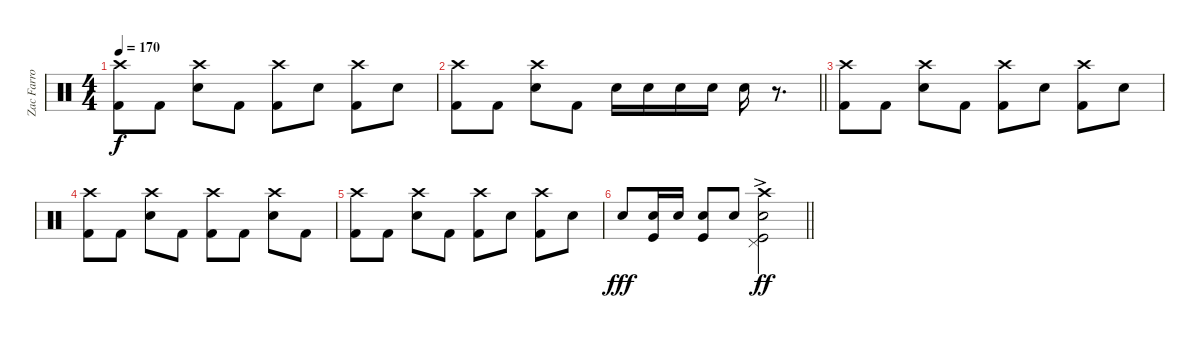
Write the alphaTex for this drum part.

\track ("Zac Farro (Percussion)" "Zac Farro ") {instrument percussion}
\staff {score}
\articulation defaults
\ts (4 4)
\tempo 170
\clef neutral
\ks c
("Crash high (hit)" "Kick (hit) 2").8{dy f} "Kick (hit) 2".8 ("Crash high (hit)" "Electric Snare (hit)").8 "Kick (hit) 2".8 ("Crash high (hit)" "Kick (hit) 2").8 "Electric Snare (hit)".8 ("Crash high (hit)" "Kick (hit) 2").8 "Electric Snare (hit)".8 |
\barLineRight lightlight
("Crash high (hit)" "Kick (hit) 2").8 "Kick (hit) 2".8 ("Crash high (hit)" "Electric Snare (hit)").8 "Kick (hit) 2".8 "Electric Snare (hit)".16 "Electric Snare (hit)".16 "Electric Snare (hit)".16 "Electric Snare (hit)".16 "Electric Snare (hit)".16 r.8{d} |
\section ("" "")
("Crash high (hit)" "Kick (hit) 2").8 "Kick (hit) 2".8 ("Crash high (hit)" "Electric Snare (hit)").8 "Kick (hit) 2".8 ("Crash high (hit)" "Kick (hit) 2").8 "Electric Snare (hit)".8 ("Crash high (hit)" "Kick (hit) 2").8 "Electric Snare (hit)".8 |
("Crash high (hit)" "Kick (hit) 2").8 "Kick (hit) 2".8 ("Crash high (hit)" "Electric Snare (hit)").8 "Kick (hit) 2".8 ("Crash high (hit)" "Kick (hit) 2").8 "Kick (hit) 2".8 ("Crash high (hit)" "Electric Snare (hit)").8 "Kick (hit) 2".8 |
("Crash high (hit)" "Kick (hit) 2").8 "Kick (hit) 2".8 ("Crash high (hit)" "Electric Snare (hit)").8 "Kick (hit) 2".8 ("Crash high (hit)" "Kick (hit) 2").8 "Electric Snare (hit)".8 ("Crash high (hit)" "Kick (hit) 2").8 "Electric Snare (hit)".8 |
\barLineRight lightlight "Electric Snare (hit)".8{dy fff}
("Electric Snare (hit)" "Kick (hit)").16 "Electric Snare (hit)".16 ("Electric Snare (hit)" "Kick (hit)").8 "Electric Snare (hit)".8 ("Crash high (hit)" "Electric Snare (hit)" "Pedal Hi-Hat (hit)"{ac} "Kick (hit)").2{dy ff}
